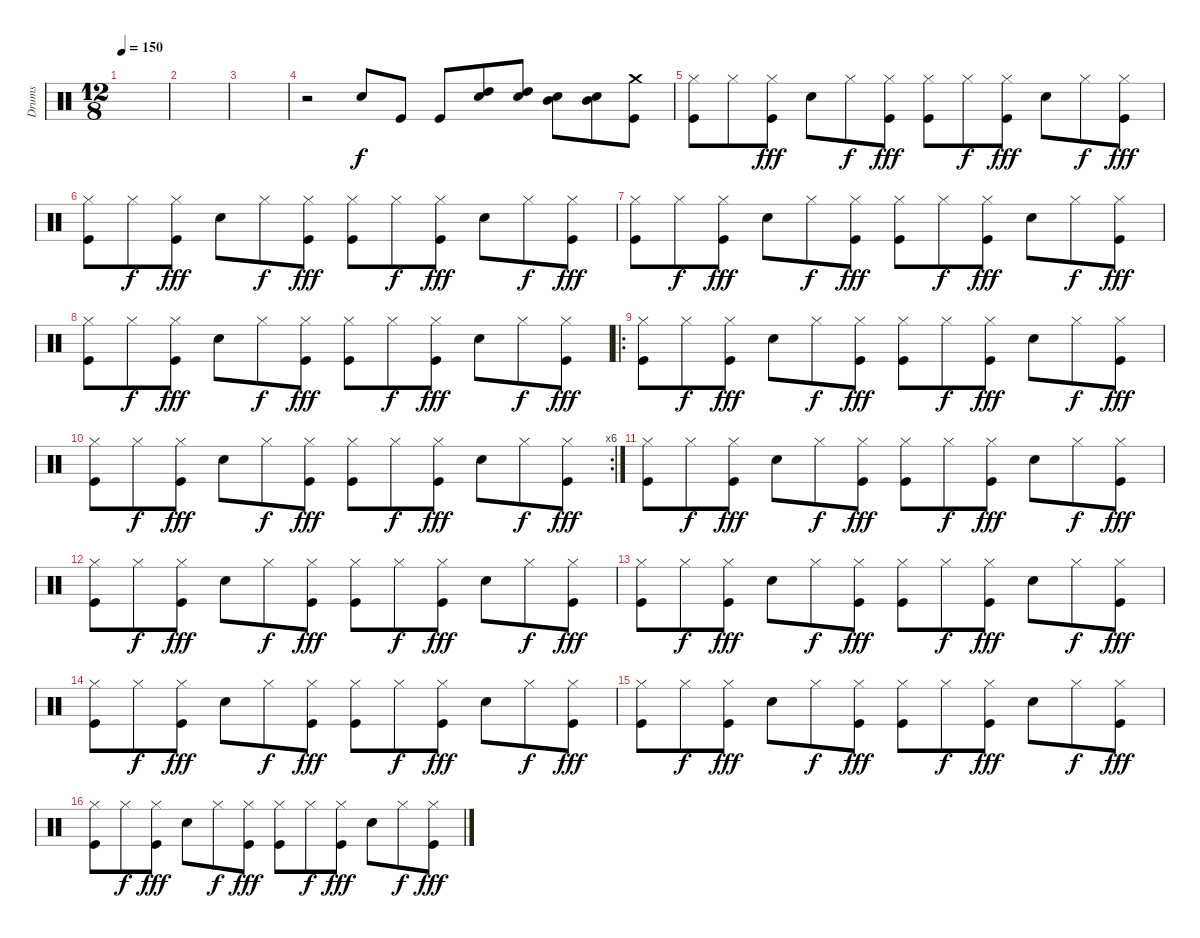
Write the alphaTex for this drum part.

\track ("Drums" "Drums") {instrument percussion}
\staff {score}
\articulation defaults
\ts (12 8)
\tempo 150
\clef neutral
\ks c
|
|
|
r.2 "Snare (hit) 2".8 "Kick (hit)".8 "Kick (hit)".8 ("Snare (hit) 2" "High Tom (hit)").8 ("Snare (hit) 2" "High Tom (hit)").8 ("Snare (hit) 2" "Mid Tom (hit)").8 ("Snare (hit) 2" "Mid Tom (hit)").8 ("Kick (hit)" "Crash medium (hit)").8 |
("Kick (hit)" "Hi-Hat (closed)").8 "Hi-Hat (closed)".8{dy f} ("Kick (hit)" "Hi-Hat (closed)").8{dy fff} "Snare (hit) 2".8 "Hi-Hat (closed)".8{dy f} ("Kick (hit)" "Hi-Hat (closed)").8{dy fff} ("Kick (hit)" "Hi-Hat (closed)").8 "Hi-Hat (closed)".8{dy f} ("Kick (hit)" "Hi-Hat (closed)").8{dy fff} "Snare (hit) 2".8 "Hi-Hat (closed)".8{dy f} ("Kick (hit)" "Hi-Hat (closed)").8{dy fff} |
("Kick (hit)" "Hi-Hat (closed)").8 "Hi-Hat (closed)".8{dy f} ("Kick (hit)" "Hi-Hat (closed)").8{dy fff} "Snare (hit) 2".8 "Hi-Hat (closed)".8{dy f} ("Kick (hit)" "Hi-Hat (closed)").8{dy fff} ("Kick (hit)" "Hi-Hat (closed)").8 "Hi-Hat (closed)".8{dy f} ("Kick (hit)" "Hi-Hat (closed)").8{dy fff} "Snare (hit) 2".8 "Hi-Hat (closed)".8{dy f} ("Kick (hit)" "Hi-Hat (closed)").8{dy fff} |
("Kick (hit)" "Hi-Hat (closed)").8 "Hi-Hat (closed)".8{dy f} ("Kick (hit)" "Hi-Hat (closed)").8{dy fff} "Snare (hit) 2".8 "Hi-Hat (closed)".8{dy f} ("Kick (hit)" "Hi-Hat (closed)").8{dy fff} ("Kick (hit)" "Hi-Hat (closed)").8 "Hi-Hat (closed)".8{dy f} ("Kick (hit)" "Hi-Hat (closed)").8{dy fff} "Snare (hit) 2".8 "Hi-Hat (closed)".8{dy f} ("Kick (hit)" "Hi-Hat (closed)").8{dy fff} |
("Kick (hit)" "Hi-Hat (closed)").8 "Hi-Hat (closed)".8{dy f} ("Kick (hit)" "Hi-Hat (closed)").8{dy fff} "Snare (hit) 2".8 "Hi-Hat (closed)".8{dy f} ("Kick (hit)" "Hi-Hat (closed)").8{dy fff} ("Kick (hit)" "Hi-Hat (closed)").8 "Hi-Hat (closed)".8{dy f} ("Kick (hit)" "Hi-Hat (closed)").8{dy fff} "Snare (hit) 2".8 "Hi-Hat (closed)".8{dy f} ("Kick (hit)" "Hi-Hat (closed)").8{dy fff} |
\ro
("Kick (hit)" "Hi-Hat (closed)").8 "Hi-Hat (closed)".8{dy f} ("Kick (hit)" "Hi-Hat (closed)").8{dy fff} "Snare (hit) 2".8 "Hi-Hat (closed)".8{dy f} ("Kick (hit)" "Hi-Hat (closed)").8{dy fff} ("Kick (hit)" "Hi-Hat (closed)").8 "Hi-Hat (closed)".8{dy f} ("Kick (hit)" "Hi-Hat (closed)").8{dy fff} "Snare (hit) 2".8 "Hi-Hat (closed)".8{dy f} ("Kick (hit)" "Hi-Hat (closed)").8{dy fff} |
\rc 6
("Kick (hit)" "Hi-Hat (closed)").8 "Hi-Hat (closed)".8{dy f} ("Kick (hit)" "Hi-Hat (closed)").8{dy fff} "Snare (hit) 2".8 "Hi-Hat (closed)".8{dy f} ("Kick (hit)" "Hi-Hat (closed)").8{dy fff} ("Kick (hit)" "Hi-Hat (closed)").8 "Hi-Hat (closed)".8{dy f} ("Kick (hit)" "Hi-Hat (closed)").8{dy fff} "Snare (hit) 2".8 "Hi-Hat (closed)".8{dy f} ("Kick (hit)" "Hi-Hat (closed)").8{dy fff} |
("Kick (hit)" "Hi-Hat (closed)").8 "Hi-Hat (closed)".8{dy f} ("Kick (hit)" "Hi-Hat (closed)").8{dy fff} "Snare (hit) 2".8 "Hi-Hat (closed)".8{dy f} ("Kick (hit)" "Hi-Hat (closed)").8{dy fff} ("Kick (hit)" "Hi-Hat (closed)").8 "Hi-Hat (closed)".8{dy f} ("Kick (hit)" "Hi-Hat (closed)").8{dy fff} "Snare (hit) 2".8 "Hi-Hat (closed)".8{dy f} ("Kick (hit)" "Hi-Hat (closed)").8{dy fff} |
("Kick (hit)" "Hi-Hat (closed)").8 "Hi-Hat (closed)".8{dy f} ("Kick (hit)" "Hi-Hat (closed)").8{dy fff} "Snare (hit) 2".8 "Hi-Hat (closed)".8{dy f} ("Kick (hit)" "Hi-Hat (closed)").8{dy fff} ("Kick (hit)" "Hi-Hat (closed)").8 "Hi-Hat (closed)".8{dy f} ("Kick (hit)" "Hi-Hat (closed)").8{dy fff} "Snare (hit) 2".8 "Hi-Hat (closed)".8{dy f} ("Kick (hit)" "Hi-Hat (closed)").8{dy fff} |
("Kick (hit)" "Hi-Hat (closed)").8 "Hi-Hat (closed)".8{dy f} ("Kick (hit)" "Hi-Hat (closed)").8{dy fff} "Snare (hit) 2".8 "Hi-Hat (closed)".8{dy f} ("Kick (hit)" "Hi-Hat (closed)").8{dy fff} ("Kick (hit)" "Hi-Hat (closed)").8 "Hi-Hat (closed)".8{dy f} ("Kick (hit)" "Hi-Hat (closed)").8{dy fff} "Snare (hit) 2".8 "Hi-Hat (closed)".8{dy f} ("Kick (hit)" "Hi-Hat (closed)").8{dy fff} |
("Kick (hit)" "Hi-Hat (closed)").8 "Hi-Hat (closed)".8{dy f} ("Kick (hit)" "Hi-Hat (closed)").8{dy fff} "Snare (hit) 2".8 "Hi-Hat (closed)".8{dy f} ("Kick (hit)" "Hi-Hat (closed)").8{dy fff} ("Kick (hit)" "Hi-Hat (closed)").8 "Hi-Hat (closed)".8{dy f} ("Kick (hit)" "Hi-Hat (closed)").8{dy fff} "Snare (hit) 2".8 "Hi-Hat (closed)".8{dy f} ("Kick (hit)" "Hi-Hat (closed)").8{dy fff} |
("Kick (hit)" "Hi-Hat (closed)").8 "Hi-Hat (closed)".8{dy f} ("Kick (hit)" "Hi-Hat (closed)").8{dy fff} "Snare (hit) 2".8 "Hi-Hat (closed)".8{dy f} ("Kick (hit)" "Hi-Hat (closed)").8{dy fff} ("Kick (hit)" "Hi-Hat (closed)").8 "Hi-Hat (closed)".8{dy f} ("Kick (hit)" "Hi-Hat (closed)").8{dy fff} "Snare (hit) 2".8 "Hi-Hat (closed)".8{dy f} ("Kick (hit)" "Hi-Hat (closed)").8{dy fff} |
("Kick (hit)" "Hi-Hat (closed)").8 "Hi-Hat (closed)".8{dy f} ("Kick (hit)" "Hi-Hat (closed)").8{dy fff} "Snare (hit) 2".8 "Hi-Hat (closed)".8{dy f} ("Kick (hit)" "Hi-Hat (closed)").8{dy fff} ("Kick (hit)" "Hi-Hat (closed)").8 "Hi-Hat (closed)".8{dy f} ("Kick (hit)" "Hi-Hat (closed)").8{dy fff} "Snare (hit) 2".8 "Hi-Hat (closed)".8{dy f} ("Kick (hit)" "Hi-Hat (closed)").8{dy fff}
